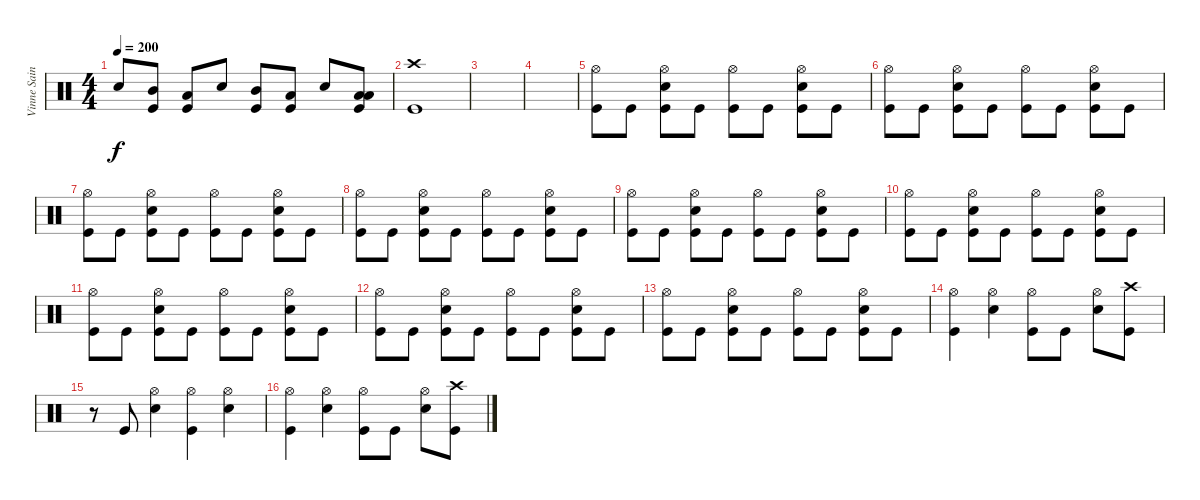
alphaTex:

\track ("Vinne Saint James" "Vinne Sain") {instrument percussion}
\staff {score}
\articulation defaults
\ts (4 4)
\tempo 200
\clef neutral
\ks c "Electric Snare (hit)".8{dy f}
("Mid Tom (hit)" "Kick (hit)").8 ("Low Tom (hit)" "Kick (hit)").8 "Electric Snare (hit)".8 ("Mid Tom (hit)" "Kick (hit)").8 ("Low Tom (hit)" "Kick (hit)").8 "Electric Snare (hit)".8 ("Low Tom (hit)" "Low Tom (hit)" "Kick (hit)").8 |
("Crash high (hit)" "Kick (hit)").1 |
|
|
("Hi-Hat (open)" "Kick (hit)").8 "Kick (hit)".8 ("Hi-Hat (open)" "Electric Snare (hit)" "Kick (hit)").8 "Kick (hit)".8 ("Hi-Hat (open)" "Kick (hit)").8 "Kick (hit)".8 ("Hi-Hat (open)" "Electric Snare (hit)" "Kick (hit)").8 "Kick (hit)".8 |
("Hi-Hat (open)" "Kick (hit)").8 "Kick (hit)".8 ("Hi-Hat (open)" "Electric Snare (hit)" "Kick (hit)").8 "Kick (hit)".8 ("Hi-Hat (open)" "Kick (hit)").8 "Kick (hit)".8 ("Hi-Hat (open)" "Electric Snare (hit)" "Kick (hit)").8 "Kick (hit)".8 |
("Hi-Hat (open)" "Kick (hit)").8 "Kick (hit)".8 ("Hi-Hat (open)" "Electric Snare (hit)" "Kick (hit)").8 "Kick (hit)".8 ("Hi-Hat (open)" "Kick (hit)").8 "Kick (hit)".8 ("Hi-Hat (open)" "Electric Snare (hit)" "Kick (hit)").8 "Kick (hit)".8 |
("Hi-Hat (open)" "Kick (hit)").8 "Kick (hit)".8 ("Hi-Hat (open)" "Electric Snare (hit)" "Kick (hit)").8 "Kick (hit)".8 ("Hi-Hat (open)" "Kick (hit)").8 "Kick (hit)".8 ("Hi-Hat (open)" "Electric Snare (hit)" "Kick (hit)").8 "Kick (hit)".8 |
("Hi-Hat (open)" "Kick (hit)").8 "Kick (hit)".8 ("Hi-Hat (open)" "Electric Snare (hit)" "Kick (hit)").8 "Kick (hit)".8 ("Hi-Hat (open)" "Kick (hit)").8 "Kick (hit)".8 ("Hi-Hat (open)" "Electric Snare (hit)" "Kick (hit)").8 "Kick (hit)".8 |
("Hi-Hat (open)" "Kick (hit)").8 "Kick (hit)".8 ("Hi-Hat (open)" "Electric Snare (hit)" "Kick (hit)").8 "Kick (hit)".8 ("Hi-Hat (open)" "Kick (hit)").8 "Kick (hit)".8 ("Hi-Hat (open)" "Electric Snare (hit)" "Kick (hit)").8 "Kick (hit)".8 |
("Hi-Hat (open)" "Kick (hit)").8 "Kick (hit)".8 ("Hi-Hat (open)" "Electric Snare (hit)" "Kick (hit)").8 "Kick (hit)".8 ("Hi-Hat (open)" "Kick (hit)").8 "Kick (hit)".8 ("Hi-Hat (open)" "Electric Snare (hit)" "Kick (hit)").8 "Kick (hit)".8 |
("Hi-Hat (open)" "Kick (hit)").8 "Kick (hit)".8 ("Hi-Hat (open)" "Electric Snare (hit)" "Kick (hit)").8 "Kick (hit)".8 ("Hi-Hat (open)" "Kick (hit)").8 "Kick (hit)".8 ("Hi-Hat (open)" "Electric Snare (hit)" "Kick (hit)").8 "Kick (hit)".8 |
("Hi-Hat (open)" "Kick (hit)").8 "Kick (hit)".8 ("Hi-Hat (open)" "Electric Snare (hit)" "Kick (hit)").8 "Kick (hit)".8 ("Hi-Hat (open)" "Kick (hit)").8 "Kick (hit)".8 ("Hi-Hat (open)" "Electric Snare (hit)" "Kick (hit)").8 "Kick (hit)".8 |
("Hi-Hat (open)" "Kick (hit)").4 ("Hi-Hat (open)" "Electric Snare (hit)").4 ("Hi-Hat (open)" "Kick (hit)").8 "Kick (hit)".8 ("Hi-Hat (open)" "Electric Snare (hit)").8 ("Crash high (hit)" "Kick (hit)").8 |
r.8 "Kick (hit)".8 ("Hi-Hat (open)" "Electric Snare (hit)").4 ("Hi-Hat (open)" "Kick (hit)").4 ("Hi-Hat (open)" "Electric Snare (hit)").4 |
("Hi-Hat (open)" "Kick (hit)").4 ("Hi-Hat (open)" "Electric Snare (hit)").4 ("Hi-Hat (open)" "Kick (hit)").8 "Kick (hit)".8 ("Hi-Hat (open)" "Electric Snare (hit)").8 ("Crash high (hit)" "Kick (hit)").8
